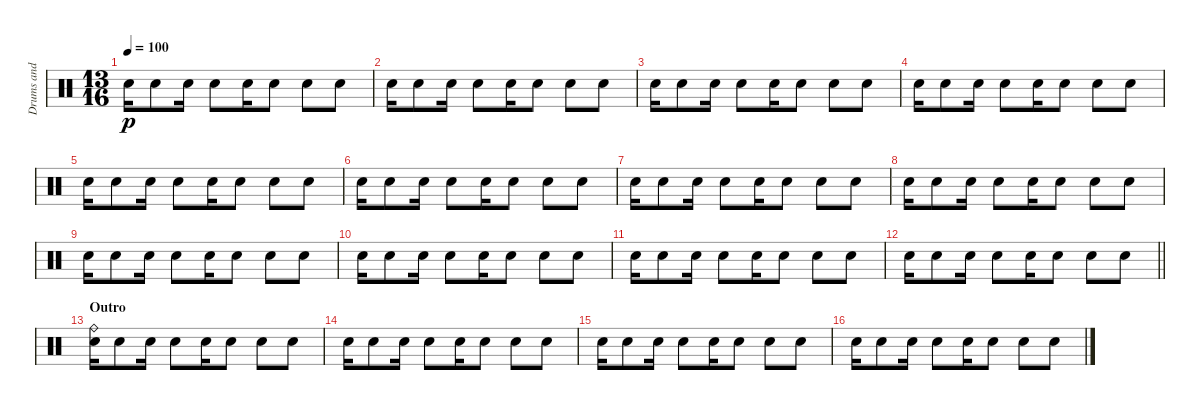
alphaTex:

\track ("Drums and FX" "Drums and ") {instrument percussion}
\staff {score}
\articulation defaults
\ts (13 16)
\tempo 100
\clef neutral
\ks c "Electric Snare (hit)".16{dy p} "Electric Snare (hit)".8 "Electric Snare (hit)".16 "Electric Snare (hit)".8 "Electric Snare (hit)".16 "Electric Snare (hit)".8 "Electric Snare (hit)".8 "Electric Snare (hit)".8
|
"Electric Snare (hit)".16 "Electric Snare (hit)".8 "Electric Snare (hit)".16 "Electric Snare (hit)".8 "Electric Snare (hit)".16 "Electric Snare (hit)".8 "Electric Snare (hit)".8 "Electric Snare (hit)".8 |
"Electric Snare (hit)".16 "Electric Snare (hit)".8 "Electric Snare (hit)".16 "Electric Snare (hit)".8 "Electric Snare (hit)".16 "Electric Snare (hit)".8 "Electric Snare (hit)".8 "Electric Snare (hit)".8 |
"Electric Snare (hit)".16 "Electric Snare (hit)".8 "Electric Snare (hit)".16 "Electric Snare (hit)".8 "Electric Snare (hit)".16 "Electric Snare (hit)".8 "Electric Snare (hit)".8 "Electric Snare (hit)".8 |
"Electric Snare (hit)".16 "Electric Snare (hit)".8 "Electric Snare (hit)".16 "Electric Snare (hit)".8 "Electric Snare (hit)".16 "Electric Snare (hit)".8 "Electric Snare (hit)".8 "Electric Snare (hit)".8 |
"Electric Snare (hit)".16 "Electric Snare (hit)".8 "Electric Snare (hit)".16 "Electric Snare (hit)".8 "Electric Snare (hit)".16 "Electric Snare (hit)".8 "Electric Snare (hit)".8 "Electric Snare (hit)".8 |
"Electric Snare (hit)".16 "Electric Snare (hit)".8 "Electric Snare (hit)".16 "Electric Snare (hit)".8 "Electric Snare (hit)".16 "Electric Snare (hit)".8 "Electric Snare (hit)".8 "Electric Snare (hit)".8 |
"Electric Snare (hit)".16 "Electric Snare (hit)".8 "Electric Snare (hit)".16 "Electric Snare (hit)".8 "Electric Snare (hit)".16 "Electric Snare (hit)".8 "Electric Snare (hit)".8 "Electric Snare (hit)".8 |
"Electric Snare (hit)".16 "Electric Snare (hit)".8 "Electric Snare (hit)".16 "Electric Snare (hit)".8 "Electric Snare (hit)".16 "Electric Snare (hit)".8 "Electric Snare (hit)".8 "Electric Snare (hit)".8 |
"Electric Snare (hit)".16 "Electric Snare (hit)".8 "Electric Snare (hit)".16 "Electric Snare (hit)".8 "Electric Snare (hit)".16 "Electric Snare (hit)".8 "Electric Snare (hit)".8 "Electric Snare (hit)".8 |
"Electric Snare (hit)".16 "Electric Snare (hit)".8 "Electric Snare (hit)".16 "Electric Snare (hit)".8 "Electric Snare (hit)".16 "Electric Snare (hit)".8 "Electric Snare (hit)".8 "Electric Snare (hit)".8 |
\barLineRight lightlight "Electric Snare (hit)".16 "Electric Snare (hit)".8 "Electric Snare (hit)".16 "Electric Snare (hit)".8 "Electric Snare (hit)".16 "Electric Snare (hit)".8 "Electric Snare (hit)".8 "Electric Snare (hit)".8
|
\section ("" "Outro")
("Ride (bell)" "Electric Snare (hit)").16 "Electric Snare (hit)".8 "Electric Snare (hit)".16 "Electric Snare (hit)".8 "Electric Snare (hit)".16 "Electric Snare (hit)".8 "Electric Snare (hit)".8 "Electric Snare (hit)".8 |
"Electric Snare (hit)".16 "Electric Snare (hit)".8 "Electric Snare (hit)".16 "Electric Snare (hit)".8 "Electric Snare (hit)".16 "Electric Snare (hit)".8 "Electric Snare (hit)".8 "Electric Snare (hit)".8 |
"Electric Snare (hit)".16 "Electric Snare (hit)".8 "Electric Snare (hit)".16 "Electric Snare (hit)".8 "Electric Snare (hit)".16 "Electric Snare (hit)".8 "Electric Snare (hit)".8 "Electric Snare (hit)".8 |
"Electric Snare (hit)".16 "Electric Snare (hit)".8 "Electric Snare (hit)".16 "Electric Snare (hit)".8 "Electric Snare (hit)".16 "Electric Snare (hit)".8 "Electric Snare (hit)".8 "Electric Snare (hit)".8
